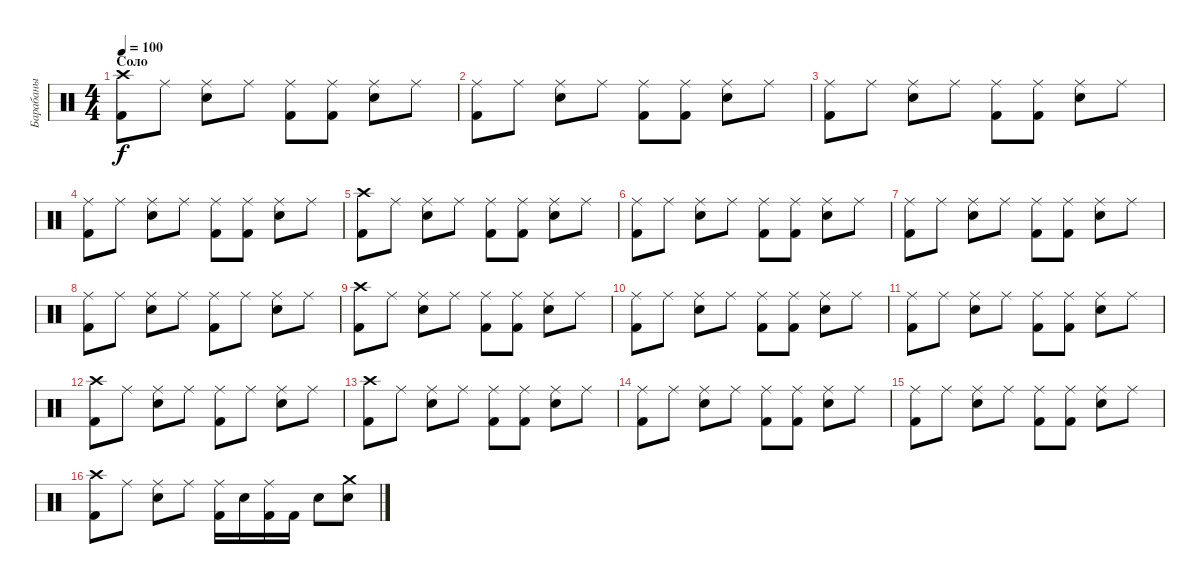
\track ("Барабаны" "Барабаны") {instrument percussion}
\staff {score}
\articulation defaults
\ts (4 4)
\section ("" "Соло")
\tempo 100
\clef neutral
\ks c
("Crash high (hit)" "Kick (hit) 2").8{dy f} "Ride (middle)".8 ("Ride (middle)" "Snare (hit) 2").8 "Ride (middle)".8 ("Ride (middle)" "Kick (hit) 2").8 ("Ride (middle)" "Kick (hit) 2").8 ("Ride (middle)" "Snare (hit) 2").8 "Ride (middle)".8 |
("Ride (middle)" "Kick (hit) 2").8 "Ride (middle)".8 ("Ride (middle)" "Snare (hit) 2").8 "Ride (middle)".8 ("Ride (middle)" "Kick (hit) 2").8 ("Ride (middle)" "Kick (hit) 2").8 ("Ride (middle)" "Snare (hit) 2").8 "Ride (middle)".8 |
("Ride (middle)" "Kick (hit) 2").8 "Ride (middle)".8 ("Ride (middle)" "Snare (hit) 2").8 "Ride (middle)".8 ("Ride (middle)" "Kick (hit) 2").8 ("Ride (middle)" "Kick (hit) 2").8 ("Ride (middle)" "Snare (hit) 2").8 "Ride (middle)".8 |
("Ride (middle)" "Kick (hit) 2").8 "Ride (middle)".8 ("Ride (middle)" "Snare (hit) 2").8 "Ride (middle)".8 ("Ride (middle)" "Kick (hit) 2").8 ("Ride (middle)" "Kick (hit) 2").8 ("Ride (middle)" "Snare (hit) 2").8 "Ride (middle)".8 |
("Crash high (hit)" "Kick (hit) 2").8 "Ride (middle)".8 ("Ride (middle)" "Snare (hit) 2").8 "Ride (middle)".8 ("Ride (middle)" "Kick (hit) 2").8 ("Ride (middle)" "Kick (hit) 2").8 ("Ride (middle)" "Snare (hit) 2").8 "Ride (middle)".8 |
("Ride (middle)" "Kick (hit) 2").8 "Ride (middle)".8 ("Ride (middle)" "Snare (hit) 2").8 "Ride (middle)".8 ("Ride (middle)" "Kick (hit) 2").8 ("Ride (middle)" "Kick (hit) 2").8 ("Ride (middle)" "Snare (hit) 2").8 "Ride (middle)".8 |
("Ride (middle)" "Kick (hit) 2").8 "Ride (middle)".8 ("Ride (middle)" "Snare (hit) 2").8 "Ride (middle)".8 ("Ride (middle)" "Kick (hit) 2").8 ("Ride (middle)" "Kick (hit) 2").8 ("Ride (middle)" "Snare (hit) 2").8 "Ride (middle)".8 |
("Ride (middle)" "Kick (hit) 2").8 "Ride (middle)".8 ("Ride (middle)" "Snare (hit) 2").8 "Ride (middle)".8 ("Ride (middle)" "Kick (hit) 2").8 "Ride (middle)".8 ("Ride (middle)" "Snare (hit) 2").8 "Ride (middle)".8 |
("Crash high (hit)" "Kick (hit) 2").8 "Ride (middle)".8 ("Ride (middle)" "Snare (hit) 2").8 "Ride (middle)".8 ("Ride (middle)" "Kick (hit) 2").8 ("Ride (middle)" "Kick (hit) 2").8 ("Ride (middle)" "Snare (hit) 2").8 "Ride (middle)".8 |
("Ride (middle)" "Kick (hit) 2").8 "Ride (middle)".8 ("Ride (middle)" "Snare (hit) 2").8 "Ride (middle)".8 ("Ride (middle)" "Kick (hit) 2").8 ("Ride (middle)" "Kick (hit) 2").8 ("Ride (middle)" "Snare (hit) 2").8 "Ride (middle)".8 |
("Ride (middle)" "Kick (hit) 2").8 "Ride (middle)".8 ("Ride (middle)" "Snare (hit) 2").8 "Ride (middle)".8 ("Ride (middle)" "Kick (hit) 2").8 ("Ride (middle)" "Kick (hit) 2").8 ("Ride (middle)" "Snare (hit) 2").8 "Ride (middle)".8 |
("Crash high (hit)" "Kick (hit) 2").8 "Ride (middle)".8 ("Ride (middle)" "Snare (hit) 2").8 "Ride (middle)".8 ("Ride (middle)" "Kick (hit) 2").8 "Ride (middle)".8 ("Ride (middle)" "Snare (hit) 2").8 "Ride (middle)".8 |
("Crash high (hit)" "Kick (hit) 2").8 "Ride (middle)".8 ("Ride (middle)" "Snare (hit) 2").8 "Ride (middle)".8 ("Ride (middle)" "Kick (hit) 2").8 ("Ride (middle)" "Kick (hit) 2").8 ("Ride (middle)" "Snare (hit) 2").8 "Ride (middle)".8 |
("Ride (middle)" "Kick (hit) 2").8 "Ride (middle)".8 ("Ride (middle)" "Snare (hit) 2").8 "Ride (middle)".8 ("Ride (middle)" "Kick (hit) 2").8 ("Ride (middle)" "Kick (hit) 2").8 ("Ride (middle)" "Snare (hit) 2").8 "Ride (middle)".8 |
("Ride (middle)" "Kick (hit) 2").8 "Ride (middle)".8 ("Ride (middle)" "Snare (hit) 2").8 "Ride (middle)".8 ("Ride (middle)" "Kick (hit) 2").8 ("Ride (middle)" "Kick (hit) 2").8 ("Ride (middle)" "Snare (hit) 2").8 "Ride (middle)".8 |
("Crash high (hit)" "Kick (hit) 2").8 "Ride (middle)".8 ("Ride (middle)" "Snare (hit) 2").8 "Ride (middle)".8 ("Ride (middle)" "Kick (hit) 2").16 "Snare (hit) 2".16 ("Ride (middle)" "Kick (hit) 2").16 "Kick (hit) 2".16 "Snare (hit) 2".8 ("Crash medium (hit)" "Snare (hit) 2").8
